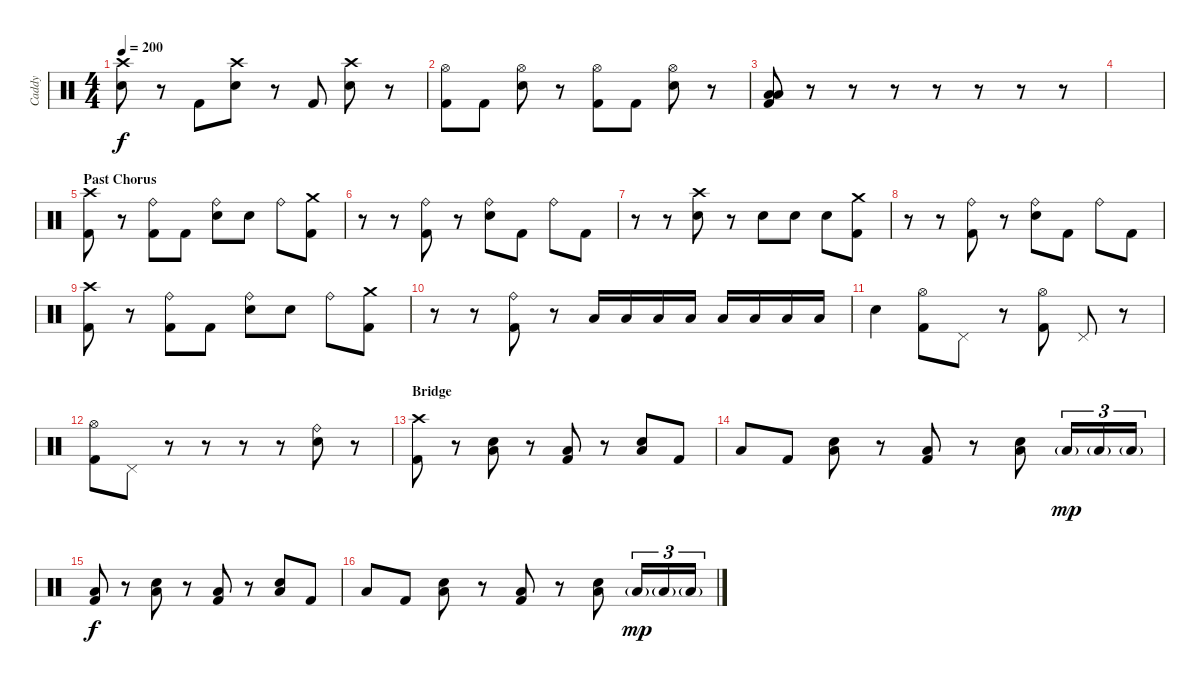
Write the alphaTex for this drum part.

\track ("Caddy" "Caddy") {instrument percussion}
\staff {score}
\articulation defaults
\ts (4 4)
\tempo 200
\clef neutral
\ks c
("Crash high (hit)" "Electric Snare (hit)").8{dy f} r.8 "Kick (hit) 2".8 ("Crash high (hit)" "Electric Snare (hit)").8 r.8 "Kick (hit) 2".8 ("Crash high (hit)" "Electric Snare (hit)").8 r.8 |
("Hi-Hat (open)" "Kick (hit) 2").8 "Kick (hit) 2".8 ("Hi-Hat (open)" "Electric Snare (hit)").8 r.8 ("Hi-Hat (open)" "Kick (hit) 2").8 "Kick (hit) 2".8 ("Hi-Hat (open)" "Electric Snare (hit)").8 r.8 |
("Low Tom (hit)" "Low Floor Tom (hit)" "Kick (hit) 2").8 r.8 r.8 r.8 r.8 r.8 r.8 r.8 |
|
\section ("" "Past Chorus")
("Crash high (hit)" "Kick (hit) 2").8 r.8 ("Ride (bell)" "Kick (hit) 2").8 "Kick (hit) 2".8 ("Ride (bell)" "Electric Snare (hit)").8 "Electric Snare (hit)".8 "Ride (bell)".8 ("Crash medium (hit)" "Kick (hit) 2").8 |
r.8 r.8 ("Ride (bell)" "Kick (hit) 2").8 r.8 ("Ride (bell)" "Electric Snare (hit)").8 "Kick (hit) 2".8 "Ride (bell)".8 "Kick (hit) 2".8 |
r.8 r.8 ("Crash high (hit)" "Electric Snare (hit)").8 r.8 "Electric Snare (hit)".8 "Electric Snare (hit)".8 "Electric Snare (hit)".8 ("Crash medium (hit)" "Kick (hit) 2").8 |
r.8 r.8 ("Ride (bell)" "Kick (hit) 2").8 r.8 ("Ride (bell)" "Electric Snare (hit)").8 "Kick (hit) 2".8 "Ride (bell)".8 "Kick (hit) 2".8 |
("Crash high (hit)" "Kick (hit) 2").8 r.8 ("Ride (bell)" "Kick (hit) 2").8 "Kick (hit) 2".8 ("Ride (bell)" "Electric Snare (hit)").8 "Electric Snare (hit)".8 "Ride (bell)".8 ("Crash medium (hit)" "Kick (hit) 2").8 |
r.8 r.8 ("Ride (bell)" "Kick (hit) 2").8 r.8 "Low Tom (hit)".16 "Low Tom (hit)".16 "Low Tom (hit)".16 "Low Tom (hit)".16 "Low Floor Tom (hit)".16 "Low Floor Tom (hit)".16 "Low Floor Tom (hit)".16 "Low Floor Tom (hit)".16 |
"Electric Snare (hit)".4 ("Hi-Hat (open)" "Kick (hit) 2").8 "Pedal Hi-Hat (hit)".8 r.8 ("Hi-Hat (open)" "Kick (hit) 2").8 "Pedal Hi-Hat (hit)".8 r.8 |
("Hi-Hat (open)" "Kick (hit) 2").8 "Pedal Hi-Hat (hit)".8 r.8 r.8 r.8 r.8 ("Ride (bell)" "Electric Snare (hit)").8 r.8 |
\section ("" "Bridge")
("Crash high (hit)" "Kick (hit) 2").8 r.8 ("Electric Snare (hit)" "Low Floor Tom (hit)").8 r.8 ("Low Floor Tom (hit)" "Kick (hit) 2").8 r.8 ("Electric Snare (hit)" "Low Floor Tom (hit)").8 "Kick (hit) 2".8 |
"Low Floor Tom (hit)".8 "Kick (hit) 2".8 ("Electric Snare (hit)" "Low Floor Tom (hit)").8 r.8 ("Low Floor Tom (hit)" "Kick (hit) 2").8 r.8 ("Electric Snare (hit)" "Low Floor Tom (hit)").8 "Low Floor Tom (hit)"{g}.16{tu (3 2) dy mp} "Low Floor Tom (hit)"{g}.16{tu (3 2)} "Low Floor Tom (hit)"{g}.16{tu (3 2)} |
("Low Floor Tom (hit)" "Kick (hit) 2").8{dy f} r.8 ("Electric Snare (hit)" "Low Floor Tom (hit)").8 r.8 ("Low Floor Tom (hit)" "Kick (hit) 2").8 r.8 ("Electric Snare (hit)" "Low Floor Tom (hit)").8 "Kick (hit) 2".8 |
"Low Floor Tom (hit)".8 "Kick (hit) 2".8 ("Electric Snare (hit)" "Low Floor Tom (hit)").8 r.8 ("Low Floor Tom (hit)" "Kick (hit) 2").8 r.8 ("Electric Snare (hit)" "Low Floor Tom (hit)").8 "Low Floor Tom (hit)"{g}.16{tu (3 2) dy mp} "Low Floor Tom (hit)"{g}.16{tu (3 2)} "Low Floor Tom (hit)"{g}.16{tu (3 2)}
